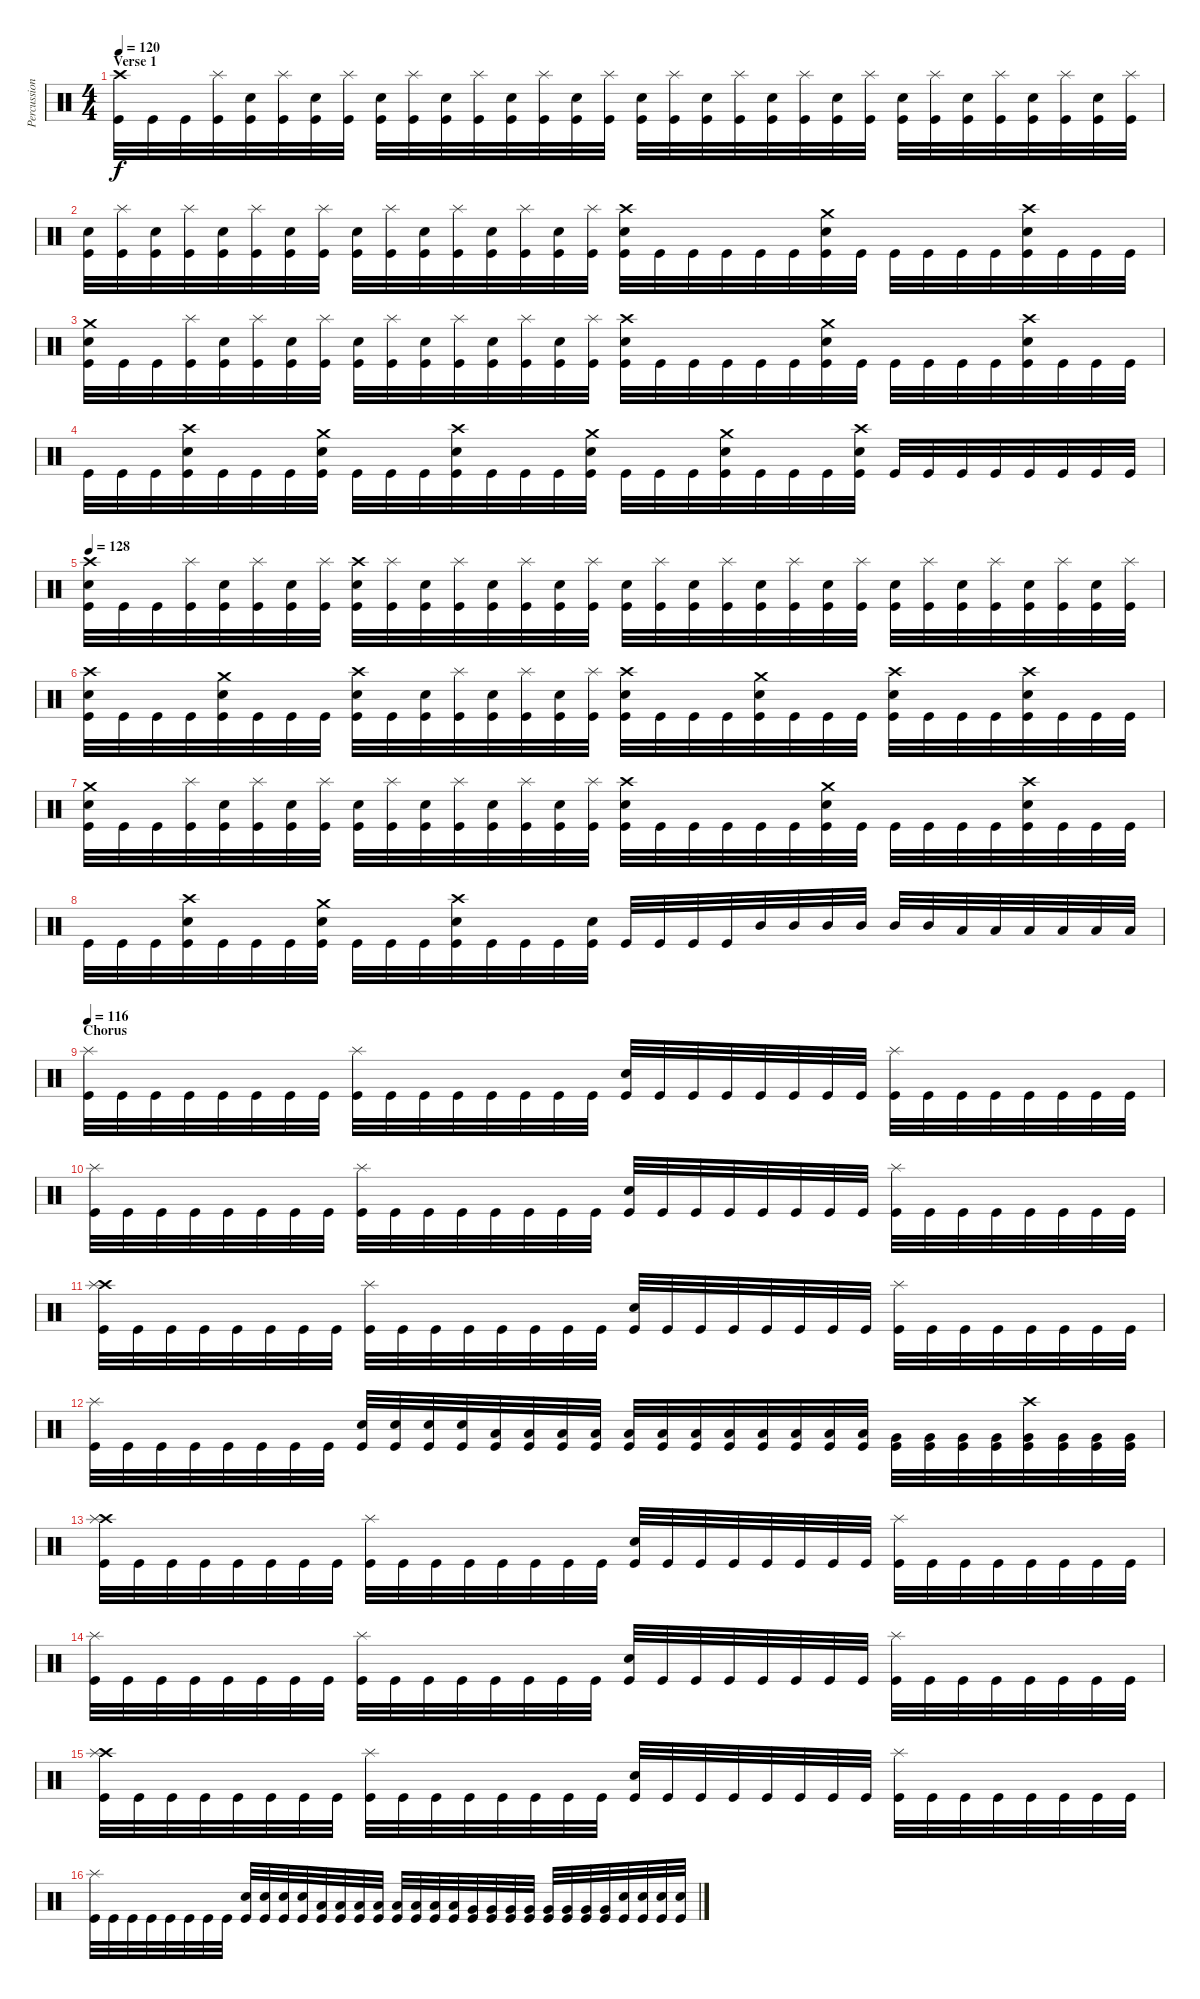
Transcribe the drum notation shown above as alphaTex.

\track ("Percussion" "Percussion") {instrument percussion}
\staff {score}
\articulation defaults
\ts (4 4)
\section ("" "Verse 1")
\tempo 120
\clef neutral
\ks c
("Crash high (hit)" "Kick (hit)").32{dy f} "Kick (hit)".32 "Kick (hit)".32 ("Splash (hit)" "Kick (hit)").32 ("Electric Snare (hit)" "Kick (hit)").32 ("Splash (hit)" "Kick (hit)").32 ("Electric Snare (hit)" "Kick (hit)").32 ("Splash (hit)" "Kick (hit)").32 ("Electric Snare (hit)" "Kick (hit)").32 ("Splash (hit)" "Kick (hit)").32 ("Electric Snare (hit)" "Kick (hit)").32 ("Splash (hit)" "Kick (hit)").32 ("Electric Snare (hit)" "Kick (hit)").32 ("Splash (hit)" "Kick (hit)").32 ("Electric Snare (hit)" "Kick (hit)").32 ("Splash (hit)" "Kick (hit)").32 ("Electric Snare (hit)" "Kick (hit)").32 ("Splash (hit)" "Kick (hit)").32 ("Electric Snare (hit)" "Kick (hit)").32 ("Splash (hit)" "Kick (hit)").32 ("Electric Snare (hit)" "Kick (hit)").32 ("Splash (hit)" "Kick (hit)").32 ("Electric Snare (hit)" "Kick (hit)").32 ("Splash (hit)" "Kick (hit)").32 ("Electric Snare (hit)" "Kick (hit)").32 ("Splash (hit)" "Kick (hit)").32 ("Electric Snare (hit)" "Kick (hit)").32 ("Splash (hit)" "Kick (hit)").32 ("Electric Snare (hit)" "Kick (hit)").32 ("Splash (hit)" "Kick (hit)").32 ("Electric Snare (hit)" "Kick (hit)").32 ("Splash (hit)" "Kick (hit)").32 |
("Electric Snare (hit)" "Kick (hit)").32 ("Splash (hit)" "Kick (hit)").32 ("Electric Snare (hit)" "Kick (hit)").32 ("Splash (hit)" "Kick (hit)").32 ("Electric Snare (hit)" "Kick (hit)").32 ("Splash (hit)" "Kick (hit)").32 ("Electric Snare (hit)" "Kick (hit)").32 ("Splash (hit)" "Kick (hit)").32 ("Electric Snare (hit)" "Kick (hit)").32 ("Splash (hit)" "Kick (hit)").32 ("Electric Snare (hit)" "Kick (hit)").32 ("Splash (hit)" "Kick (hit)").32 ("Electric Snare (hit)" "Kick (hit)").32 ("Splash (hit)" "Kick (hit)").32 ("Electric Snare (hit)" "Kick (hit)").32 ("Splash (hit)" "Kick (hit)").32 ("Crash high (hit)" "Electric Snare (hit)" "Kick (hit)").32 "Kick (hit)".32 "Kick (hit)".32 "Kick (hit)".32 "Kick (hit)".32 "Kick (hit)".32 ("Crash medium (hit)" "Electric Snare (hit)" "Kick (hit)").32 "Kick (hit)".32 "Kick (hit)".32 "Kick (hit)".32 "Kick (hit)".32 "Kick (hit)".32 ("Crash high (hit)" "Electric Snare (hit)" "Kick (hit)").32 "Kick (hit)".32 "Kick (hit)".32 "Kick (hit)".32 |
("Crash medium (hit)" "Electric Snare (hit)" "Kick (hit)").32 "Kick (hit)".32 "Kick (hit)".32 ("Splash (hit)" "Kick (hit)").32 ("Electric Snare (hit)" "Kick (hit)").32 ("Splash (hit)" "Kick (hit)").32 ("Electric Snare (hit)" "Kick (hit)").32 ("Splash (hit)" "Kick (hit)").32 ("Electric Snare (hit)" "Kick (hit)").32 ("Splash (hit)" "Kick (hit)").32 ("Electric Snare (hit)" "Kick (hit)").32 ("Splash (hit)" "Kick (hit)").32 ("Electric Snare (hit)" "Kick (hit)").32 ("Splash (hit)" "Kick (hit)").32 ("Electric Snare (hit)" "Kick (hit)").32 ("Splash (hit)" "Kick (hit)").32 ("Crash high (hit)" "Electric Snare (hit)" "Kick (hit)").32 "Kick (hit)".32 "Kick (hit)".32 "Kick (hit)".32 "Kick (hit)".32 "Kick (hit)".32 ("Crash medium (hit)" "Electric Snare (hit)" "Kick (hit)").32 "Kick (hit)".32 "Kick (hit)".32 "Kick (hit)".32 "Kick (hit)".32 "Kick (hit)".32 ("Crash high (hit)" "Electric Snare (hit)" "Kick (hit)").32 "Kick (hit)".32 "Kick (hit)".32 "Kick (hit)".32 |
"Kick (hit)".32 "Kick (hit)".32 "Kick (hit)".32 ("Crash high (hit)" "Electric Snare (hit)" "Kick (hit)").32 "Kick (hit)".32 "Kick (hit)".32 "Kick (hit)".32 ("Crash medium (hit)" "Electric Snare (hit)" "Kick (hit)").32 "Kick (hit)".32 "Kick (hit)".32 "Kick (hit)".32 ("Crash high (hit)" "Electric Snare (hit)" "Kick (hit)").32 "Kick (hit)".32 "Kick (hit)".32 "Kick (hit)".32 ("Crash medium (hit)" "Electric Snare (hit)" "Kick (hit)").32 "Kick (hit)".32 "Kick (hit)".32 "Kick (hit)".32 ("Crash medium (hit)" "Electric Snare (hit)" "Kick (hit)").32 "Kick (hit)".32 "Kick (hit)".32 "Kick (hit)".32 ("Crash high (hit)" "Electric Snare (hit)" "Kick (hit)").32 "Kick (hit)".32 "Kick (hit)".32 "Kick (hit)".32 "Kick (hit)".32 "Kick (hit)".32 "Kick (hit)".32 "Kick (hit)".32 "Kick (hit)".32 |
\tempo 128
("Crash high (hit)" "Electric Snare (hit)" "Kick (hit)").32 "Kick (hit)".32 "Kick (hit)".32 ("Splash (hit)" "Kick (hit)").32 ("Electric Snare (hit)" "Kick (hit)").32 ("Splash (hit)" "Kick (hit)").32 ("Electric Snare (hit)" "Kick (hit)").32 ("Splash (hit)" "Kick (hit)").32 ("Crash high (hit)" "Electric Snare (hit)" "Kick (hit)").32 ("Splash (hit)" "Kick (hit)").32 ("Electric Snare (hit)" "Kick (hit)").32 ("Splash (hit)" "Kick (hit)").32 ("Electric Snare (hit)" "Kick (hit)").32 ("Splash (hit)" "Kick (hit)").32 ("Electric Snare (hit)" "Kick (hit)").32 ("Splash (hit)" "Kick (hit)").32 ("Electric Snare (hit)" "Kick (hit)").32 ("Splash (hit)" "Kick (hit)").32 ("Electric Snare (hit)" "Kick (hit)").32 ("Splash (hit)" "Kick (hit)").32 ("Electric Snare (hit)" "Kick (hit)").32 ("Splash (hit)" "Kick (hit)").32 ("Electric Snare (hit)" "Kick (hit)").32 ("Splash (hit)" "Kick (hit)").32 ("Electric Snare (hit)" "Kick (hit)").32 ("Splash (hit)" "Kick (hit)").32 ("Electric Snare (hit)" "Kick (hit)").32 ("Splash (hit)" "Kick (hit)").32 ("Electric Snare (hit)" "Kick (hit)").32 ("Splash (hit)" "Kick (hit)").32 ("Electric Snare (hit)" "Kick (hit)").32 ("Splash (hit)" "Kick (hit)").32 |
("Crash high (hit)" "Electric Snare (hit)" "Kick (hit)").32 "Kick (hit)".32 "Kick (hit)".32 "Kick (hit)".32 ("Crash medium (hit)" "Electric Snare (hit)" "Kick (hit)").32 "Kick (hit)".32 "Kick (hit)".32 "Kick (hit)".32 ("Crash high (hit)" "Electric Snare (hit)" "Kick (hit)").32 "Kick (hit)".32 ("Electric Snare (hit)" "Kick (hit)").32 ("Splash (hit)" "Kick (hit)").32 ("Electric Snare (hit)" "Kick (hit)").32 ("Splash (hit)" "Kick (hit)").32 ("Electric Snare (hit)" "Kick (hit)").32 ("Splash (hit)" "Kick (hit)").32 ("Crash high (hit)" "Electric Snare (hit)" "Kick (hit)").32 "Kick (hit)".32 "Kick (hit)".32 "Kick (hit)".32 ("Crash medium (hit)" "Electric Snare (hit)" "Kick (hit)").32 "Kick (hit)".32 "Kick (hit)".32 "Kick (hit)".32 ("Crash high (hit)" "Electric Snare (hit)" "Kick (hit)").32 "Kick (hit)".32 "Kick (hit)".32 "Kick (hit)".32 ("Crash high (hit)" "Electric Snare (hit)" "Kick (hit)").32 "Kick (hit)".32 "Kick (hit)".32 "Kick (hit)".32 |
("Crash medium (hit)" "Electric Snare (hit)" "Kick (hit)").32 "Kick (hit)".32 "Kick (hit)".32 ("Splash (hit)" "Kick (hit)").32 ("Electric Snare (hit)" "Kick (hit)").32 ("Splash (hit)" "Kick (hit)").32 ("Electric Snare (hit)" "Kick (hit)").32 ("Splash (hit)" "Kick (hit)").32 ("Electric Snare (hit)" "Kick (hit)").32 ("Splash (hit)" "Kick (hit)").32 ("Electric Snare (hit)" "Kick (hit)").32 ("Splash (hit)" "Kick (hit)").32 ("Electric Snare (hit)" "Kick (hit)").32 ("Splash (hit)" "Kick (hit)").32 ("Electric Snare (hit)" "Kick (hit)").32 ("Splash (hit)" "Kick (hit)").32 ("Crash high (hit)" "Electric Snare (hit)" "Kick (hit)").32 "Kick (hit)".32 "Kick (hit)".32 "Kick (hit)".32 "Kick (hit)".32 "Kick (hit)".32 ("Crash medium (hit)" "Electric Snare (hit)" "Kick (hit)").32 "Kick (hit)".32 "Kick (hit)".32 "Kick (hit)".32 "Kick (hit)".32 "Kick (hit)".32 ("Crash high (hit)" "Electric Snare (hit)" "Kick (hit)").32 "Kick (hit)".32 "Kick (hit)".32 "Kick (hit)".32 |
"Kick (hit)".32 "Kick (hit)".32 "Kick (hit)".32 ("Crash high (hit)" "Electric Snare (hit)" "Kick (hit)").32 "Kick (hit)".32 "Kick (hit)".32 "Kick (hit)".32 ("Crash medium (hit)" "Electric Snare (hit)" "Kick (hit)").32 "Kick (hit)".32 "Kick (hit)".32 "Kick (hit)".32 ("Crash high (hit)" "Electric Snare (hit)" "Kick (hit)").32 "Kick (hit)".32 "Kick (hit)".32 "Kick (hit)".32 ("Electric Snare (hit)" "Kick (hit)").32 "Kick (hit)".32 "Kick (hit)".32 "Kick (hit)".32 "Kick (hit)".32 "Mid Tom (hit)".32 "Mid Tom (hit)".32 "Mid Tom (hit)".32 "Mid Tom (hit)".32 "Mid Tom (hit)".32 "Mid Tom (hit)".32 "Low Tom (hit)".32 "Low Tom (hit)".32 "Low Tom (hit)".32 "Low Tom (hit)".32 "Low Tom (hit)".32 "Low Tom (hit)".32 |
\section ("" "Chorus")
\tempo 112
\tempo 116
("Splash (hit)" "Kick (hit)").32 "Kick (hit)".32 "Kick (hit)".32 "Kick (hit)".32 "Kick (hit)".32 "Kick (hit)".32 "Kick (hit)".32 "Kick (hit)".32 ("Splash (hit)" "Kick (hit)").32 "Kick (hit)".32 "Kick (hit)".32 "Kick (hit)".32 "Kick (hit)".32 "Kick (hit)".32 "Kick (hit)".32 "Kick (hit)".32 ("Electric Snare (hit)" "Kick (hit)").32 "Kick (hit)".32 "Kick (hit)".32 "Kick (hit)".32 "Kick (hit)".32 "Kick (hit)".32 "Kick (hit)".32 "Kick (hit)".32 ("Splash (hit)" "Kick (hit)").32 "Kick (hit)".32 "Kick (hit)".32 "Kick (hit)".32 "Kick (hit)".32 "Kick (hit)".32 "Kick (hit)".32 "Kick (hit)".32 |
("Splash (hit)" "Kick (hit)").32 "Kick (hit)".32 "Kick (hit)".32 "Kick (hit)".32 "Kick (hit)".32 "Kick (hit)".32 "Kick (hit)".32 "Kick (hit)".32 ("Splash (hit)" "Kick (hit)").32 "Kick (hit)".32 "Kick (hit)".32 "Kick (hit)".32 "Kick (hit)".32 "Kick (hit)".32 "Kick (hit)".32 "Kick (hit)".32 ("Electric Snare (hit)" "Kick (hit)").32 "Kick (hit)".32 "Kick (hit)".32 "Kick (hit)".32 "Kick (hit)".32 "Kick (hit)".32 "Kick (hit)".32 "Kick (hit)".32 ("Splash (hit)" "Kick (hit)").32 "Kick (hit)".32 "Kick (hit)".32 "Kick (hit)".32 "Kick (hit)".32 "Kick (hit)".32 "Kick (hit)".32 "Kick (hit)".32 |
("Crash high (hit)" "Splash (hit)" "Kick (hit)").32 "Kick (hit)".32 "Kick (hit)".32 "Kick (hit)".32 "Kick (hit)".32 "Kick (hit)".32 "Kick (hit)".32 "Kick (hit)".32 ("Splash (hit)" "Kick (hit)").32 "Kick (hit)".32 "Kick (hit)".32 "Kick (hit)".32 "Kick (hit)".32 "Kick (hit)".32 "Kick (hit)".32 "Kick (hit)".32 ("Electric Snare (hit)" "Kick (hit)").32 "Kick (hit)".32 "Kick (hit)".32 "Kick (hit)".32 "Kick (hit)".32 "Kick (hit)".32 "Kick (hit)".32 "Kick (hit)".32 ("Splash (hit)" "Kick (hit)").32 "Kick (hit)".32 "Kick (hit)".32 "Kick (hit)".32 "Kick (hit)".32 "Kick (hit)".32 "Kick (hit)".32 "Kick (hit)".32 |
("Splash (hit)" "Kick (hit)").32 "Kick (hit)".32 "Kick (hit)".32 "Kick (hit)".32 "Kick (hit)".32 "Kick (hit)".32 "Kick (hit)".32 "Kick (hit)".32 ("Electric Snare (hit)" "Kick (hit)").32 ("Electric Snare (hit)" "Kick (hit)").32 ("Electric Snare (hit)" "Kick (hit)").32 ("Electric Snare (hit)" "Kick (hit)").32 ("Low Tom (hit)" "Kick (hit)").32 ("Low Tom (hit)" "Kick (hit)").32 ("Low Tom (hit)" "Kick (hit)").32 ("Low Tom (hit)" "Kick (hit)").32 ("Low Tom (hit)" "Kick (hit)").32 ("Low Tom (hit)" "Kick (hit)").32 ("Low Tom (hit)" "Kick (hit)").32 ("Low Tom (hit)" "Kick (hit)").32 ("Low Tom (hit)" "Kick (hit)").32 ("Low Tom (hit)" "Kick (hit)").32 ("Low Tom (hit)" "Kick (hit)").32 ("Low Tom (hit)" "Kick (hit)").32 ("Very Low Tom (hit)" "Kick (hit)").32 ("Very Low Tom (hit)" "Kick (hit)").32 ("Very Low Tom (hit)" "Kick (hit)").32 ("Very Low Tom (hit)" "Kick (hit)").32 ("Crash high (hit)" "Very Low Tom (hit)" "Kick (hit)").32 ("Very Low Tom (hit)" "Kick (hit)").32 ("Very Low Tom (hit)" "Kick (hit)").32 ("Very Low Tom (hit)" "Kick (hit)").32 |
("Crash high (hit)" "Splash (hit)" "Kick (hit)").32 "Kick (hit)".32 "Kick (hit)".32 "Kick (hit)".32 "Kick (hit)".32 "Kick (hit)".32 "Kick (hit)".32 "Kick (hit)".32 ("Splash (hit)" "Kick (hit)").32 "Kick (hit)".32 "Kick (hit)".32 "Kick (hit)".32 "Kick (hit)".32 "Kick (hit)".32 "Kick (hit)".32 "Kick (hit)".32 ("Electric Snare (hit)" "Kick (hit)").32 "Kick (hit)".32 "Kick (hit)".32 "Kick (hit)".32 "Kick (hit)".32 "Kick (hit)".32 "Kick (hit)".32 "Kick (hit)".32 ("Splash (hit)" "Kick (hit)").32 "Kick (hit)".32 "Kick (hit)".32 "Kick (hit)".32 "Kick (hit)".32 "Kick (hit)".32 "Kick (hit)".32 "Kick (hit)".32 |
("Splash (hit)" "Kick (hit)").32 "Kick (hit)".32 "Kick (hit)".32 "Kick (hit)".32 "Kick (hit)".32 "Kick (hit)".32 "Kick (hit)".32 "Kick (hit)".32 ("Splash (hit)" "Kick (hit)").32 "Kick (hit)".32 "Kick (hit)".32 "Kick (hit)".32 "Kick (hit)".32 "Kick (hit)".32 "Kick (hit)".32 "Kick (hit)".32 ("Electric Snare (hit)" "Kick (hit)").32 "Kick (hit)".32 "Kick (hit)".32 "Kick (hit)".32 "Kick (hit)".32 "Kick (hit)".32 "Kick (hit)".32 "Kick (hit)".32 ("Splash (hit)" "Kick (hit)").32 "Kick (hit)".32 "Kick (hit)".32 "Kick (hit)".32 "Kick (hit)".32 "Kick (hit)".32 "Kick (hit)".32 "Kick (hit)".32 |
("Crash high (hit)" "Splash (hit)" "Kick (hit)").32 "Kick (hit)".32 "Kick (hit)".32 "Kick (hit)".32 "Kick (hit)".32 "Kick (hit)".32 "Kick (hit)".32 "Kick (hit)".32 ("Splash (hit)" "Kick (hit)").32 "Kick (hit)".32 "Kick (hit)".32 "Kick (hit)".32 "Kick (hit)".32 "Kick (hit)".32 "Kick (hit)".32 "Kick (hit)".32 ("Electric Snare (hit)" "Kick (hit)").32 "Kick (hit)".32 "Kick (hit)".32 "Kick (hit)".32 "Kick (hit)".32 "Kick (hit)".32 "Kick (hit)".32 "Kick (hit)".32 ("Splash (hit)" "Kick (hit)").32 "Kick (hit)".32 "Kick (hit)".32 "Kick (hit)".32 "Kick (hit)".32 "Kick (hit)".32 "Kick (hit)".32 "Kick (hit)".32 |
("Splash (hit)" "Kick (hit)").32 "Kick (hit)".32 "Kick (hit)".32 "Kick (hit)".32 "Kick (hit)".32 "Kick (hit)".32 "Kick (hit)".32 "Kick (hit)".32 ("Electric Snare (hit)" "Kick (hit)").32 ("Electric Snare (hit)" "Kick (hit)").32 ("Electric Snare (hit)" "Kick (hit)").32 ("Electric Snare (hit)" "Kick (hit)").32 ("Low Tom (hit)" "Kick (hit)").32 ("Low Tom (hit)" "Kick (hit)").32 ("Low Tom (hit)" "Kick (hit)").32 ("Low Tom (hit)" "Kick (hit)").32 ("Low Tom (hit)" "Kick (hit)").32 ("Low Tom (hit)" "Kick (hit)").32 ("Low Tom (hit)" "Kick (hit)").32 ("Low Tom (hit)" "Kick (hit)").32 ("Very Low Tom (hit)" "Kick (hit)").32 ("Very Low Tom (hit)" "Kick (hit)").32 ("Very Low Tom (hit)" "Kick (hit)").32 ("Very Low Tom (hit)" "Kick (hit)").32 ("Very Low Tom (hit)" "Kick (hit)").32 ("Very Low Tom (hit)" "Kick (hit)").32 ("Very Low Tom (hit)" "Kick (hit)").32 ("Very Low Tom (hit)" "Kick (hit)").32 ("Electric Snare (hit)" "Kick (hit)").32 ("Electric Snare (hit)" "Kick (hit)").32 ("Electric Snare (hit)" "Kick (hit)").32 ("Electric Snare (hit)" "Kick (hit)").32
